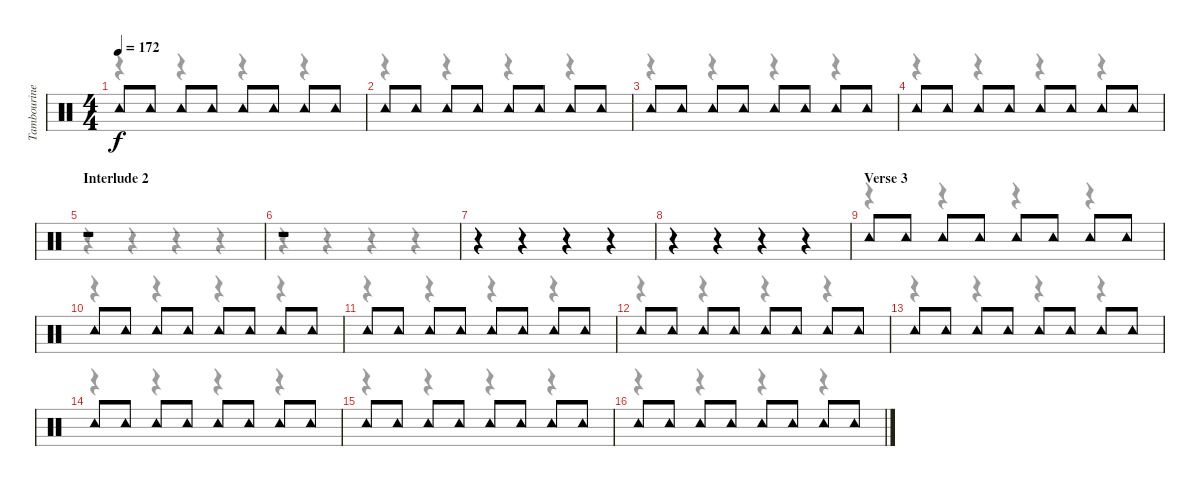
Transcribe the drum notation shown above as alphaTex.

\track ("Tambourine" "Tambourine") {instrument percussion}
\staff {score}
\articulation defaults
\voice
\ts (4 4)
\tempo 172
\clef neutral
\ks c "Tambourine (hit)".8{dy f} "Tambourine (hit)".8 "Tambourine (hit)".8 "Tambourine (hit)".8 "Tambourine (hit)".8 "Tambourine (hit)".8 "Tambourine (hit)".8 "Tambourine (hit)".8
|
"Tambourine (hit)".8 "Tambourine (hit)".8 "Tambourine (hit)".8 "Tambourine (hit)".8 "Tambourine (hit)".8 "Tambourine (hit)".8 "Tambourine (hit)".8 "Tambourine (hit)".8 |
"Tambourine (hit)".8 "Tambourine (hit)".8 "Tambourine (hit)".8 "Tambourine (hit)".8 "Tambourine (hit)".8 "Tambourine (hit)".8 "Tambourine (hit)".8 "Tambourine (hit)".8 |
"Tambourine (hit)".8 "Tambourine (hit)".8 "Tambourine (hit)".8 "Tambourine (hit)".8 "Tambourine (hit)".8 "Tambourine (hit)".8 "Tambourine (hit)".8 "Tambourine (hit)".8 |
\section ("" "Interlude 2")
r.1 |
r.1 |
r.4 r.4 r.4 r.4 |
r.4 r.4 r.4 r.4 |
\section ("" "Verse 3")
"Tambourine (hit)".8 "Tambourine (hit)".8 "Tambourine (hit)".8 "Tambourine (hit)".8 "Tambourine (hit)".8 "Tambourine (hit)".8 "Tambourine (hit)".8 "Tambourine (hit)".8 |
"Tambourine (hit)".8 "Tambourine (hit)".8 "Tambourine (hit)".8 "Tambourine (hit)".8 "Tambourine (hit)".8 "Tambourine (hit)".8 "Tambourine (hit)".8 "Tambourine (hit)".8 |
"Tambourine (hit)".8 "Tambourine (hit)".8 "Tambourine (hit)".8 "Tambourine (hit)".8 "Tambourine (hit)".8 "Tambourine (hit)".8 "Tambourine (hit)".8 "Tambourine (hit)".8 |
"Tambourine (hit)".8 "Tambourine (hit)".8 "Tambourine (hit)".8 "Tambourine (hit)".8 "Tambourine (hit)".8 "Tambourine (hit)".8 "Tambourine (hit)".8 "Tambourine (hit)".8 |
"Tambourine (hit)".8 "Tambourine (hit)".8 "Tambourine (hit)".8 "Tambourine (hit)".8 "Tambourine (hit)".8 "Tambourine (hit)".8 "Tambourine (hit)".8 "Tambourine (hit)".8 |
"Tambourine (hit)".8 "Tambourine (hit)".8 "Tambourine (hit)".8 "Tambourine (hit)".8 "Tambourine (hit)".8 "Tambourine (hit)".8 "Tambourine (hit)".8 "Tambourine (hit)".8 |
"Tambourine (hit)".8 "Tambourine (hit)".8 "Tambourine (hit)".8 "Tambourine (hit)".8 "Tambourine (hit)".8 "Tambourine (hit)".8 "Tambourine (hit)".8 "Tambourine (hit)".8 |
"Tambourine (hit)".8 "Tambourine (hit)".8 "Tambourine (hit)".8 "Tambourine (hit)".8 "Tambourine (hit)".8 "Tambourine (hit)".8 "Tambourine (hit)".8 "Tambourine (hit)".8
\voice
\clef neutral
\ottava regular
\simile none
\ks c
r.4{dy f} r.4 r.4 r.4 |
r.4 r.4 r.4 r.4 |
r.4 r.4 r.4 r.4 |
r.4 r.4 r.4 r.4 |
r.4 r.4 r.4 r.4 |
r.4 r.4 r.4 r.4 |
r.4 r.4 r.4 r.4 |
r.4 r.4 r.4 r.4 |
r.4 r.4 r.4 r.4 |
r.4 r.4 r.4 r.4 |
r.4 r.4 r.4 r.4 |
r.4 r.4 r.4 r.4 |
r.4 r.4 r.4 r.4 |
r.4 r.4 r.4 r.4 |
r.4 r.4 r.4 r.4 |
r.4 r.4 r.4 r.4
